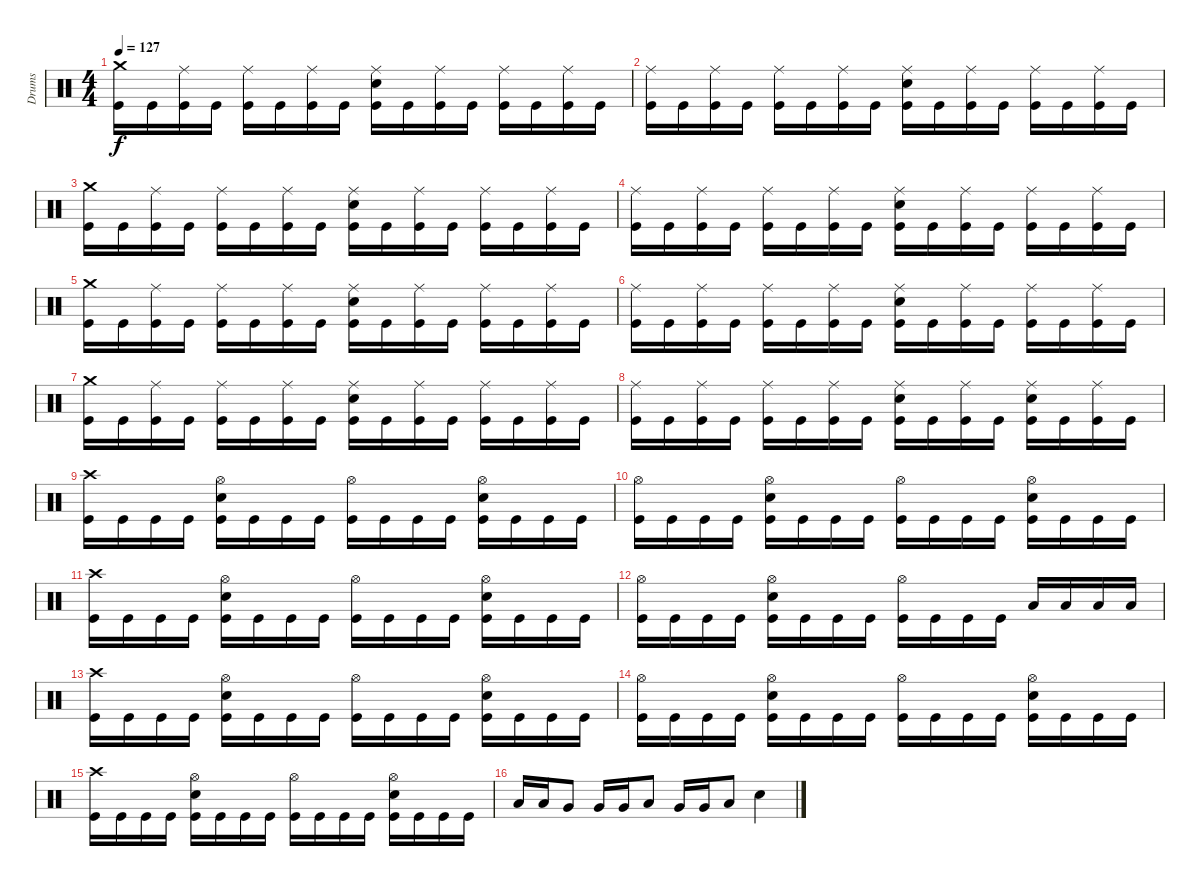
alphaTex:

\track ("Drums" "Drums") {instrument percussion}
\staff {score}
\articulation defaults
\ts (4 4)
\tempo 127
\clef neutral
\ks c
("Crash medium (hit)" "Kick (hit)").16{dy f} "Kick (hit)".16 ("Ride (middle)" "Kick (hit)").16 "Kick (hit)".16 ("Ride (middle)" "Kick (hit)").16 "Kick (hit)".16 ("Ride (middle)" "Kick (hit)").16 "Kick (hit)".16 ("Ride (middle)" "Snare (hit) 2" "Kick (hit)").16 "Kick (hit)".16 ("Ride (middle)" "Kick (hit)").16 "Kick (hit)".16 ("Ride (middle)" "Kick (hit)").16 "Kick (hit)".16 ("Ride (middle)" "Kick (hit)").16 "Kick (hit)".16 |
("Ride (middle)" "Kick (hit)").16 "Kick (hit)".16 ("Ride (middle)" "Kick (hit)").16 "Kick (hit)".16 ("Ride (middle)" "Kick (hit)").16 "Kick (hit)".16 ("Ride (middle)" "Kick (hit)").16 "Kick (hit)".16 ("Ride (middle)" "Snare (hit) 2" "Kick (hit)").16 "Kick (hit)".16 ("Ride (middle)" "Kick (hit)").16 "Kick (hit)".16 ("Ride (middle)" "Kick (hit)").16 "Kick (hit)".16 ("Ride (middle)" "Kick (hit)").16 "Kick (hit)".16 |
("Crash medium (hit)" "Kick (hit)").16 "Kick (hit)".16 ("Ride (middle)" "Kick (hit)").16 "Kick (hit)".16 ("Ride (middle)" "Kick (hit)").16 "Kick (hit)".16 ("Ride (middle)" "Kick (hit)").16 "Kick (hit)".16 ("Ride (middle)" "Snare (hit) 2" "Kick (hit)").16 "Kick (hit)".16 ("Ride (middle)" "Kick (hit)").16 "Kick (hit)".16 ("Ride (middle)" "Kick (hit)").16 "Kick (hit)".16 ("Ride (middle)" "Kick (hit)").16 "Kick (hit)".16 |
("Ride (middle)" "Kick (hit)").16 "Kick (hit)".16 ("Ride (middle)" "Kick (hit)").16 "Kick (hit)".16 ("Ride (middle)" "Kick (hit)").16 "Kick (hit)".16 ("Ride (middle)" "Kick (hit)").16 "Kick (hit)".16 ("Ride (middle)" "Snare (hit) 2" "Kick (hit)").16 "Kick (hit)".16 ("Ride (middle)" "Kick (hit)").16 "Kick (hit)".16 ("Ride (middle)" "Kick (hit)").16 "Kick (hit)".16 ("Ride (middle)" "Kick (hit)").16 "Kick (hit)".16 |
("Crash medium (hit)" "Kick (hit)").16 "Kick (hit)".16 ("Ride (middle)" "Kick (hit)").16 "Kick (hit)".16 ("Ride (middle)" "Kick (hit)").16 "Kick (hit)".16 ("Ride (middle)" "Kick (hit)").16 "Kick (hit)".16 ("Ride (middle)" "Snare (hit) 2" "Kick (hit)").16 "Kick (hit)".16 ("Ride (middle)" "Kick (hit)").16 "Kick (hit)".16 ("Ride (middle)" "Kick (hit)").16 "Kick (hit)".16 ("Ride (middle)" "Kick (hit)").16 "Kick (hit)".16 |
("Ride (middle)" "Kick (hit)").16 "Kick (hit)".16 ("Ride (middle)" "Kick (hit)").16 "Kick (hit)".16 ("Ride (middle)" "Kick (hit)").16 "Kick (hit)".16 ("Ride (middle)" "Kick (hit)").16 "Kick (hit)".16 ("Ride (middle)" "Snare (hit) 2" "Kick (hit)").16 "Kick (hit)".16 ("Ride (middle)" "Kick (hit)").16 "Kick (hit)".16 ("Ride (middle)" "Kick (hit)").16 "Kick (hit)".16 ("Ride (middle)" "Kick (hit)").16 "Kick (hit)".16 |
("Crash medium (hit)" "Kick (hit)").16 "Kick (hit)".16 ("Ride (middle)" "Kick (hit)").16 "Kick (hit)".16 ("Ride (middle)" "Kick (hit)").16 "Kick (hit)".16 ("Ride (middle)" "Kick (hit)").16 "Kick (hit)".16 ("Ride (middle)" "Snare (hit) 2" "Kick (hit)").16 "Kick (hit)".16 ("Ride (middle)" "Kick (hit)").16 "Kick (hit)".16 ("Ride (middle)" "Kick (hit)").16 "Kick (hit)".16 ("Ride (middle)" "Kick (hit)").16 "Kick (hit)".16 |
("Ride (middle)" "Kick (hit)").16 "Kick (hit)".16 ("Ride (middle)" "Kick (hit)").16 "Kick (hit)".16 ("Ride (middle)" "Kick (hit)").16 "Kick (hit)".16 ("Ride (middle)" "Kick (hit)").16 "Kick (hit)".16 ("Ride (middle)" "Snare (hit) 2" "Kick (hit)").16 "Kick (hit)".16 ("Ride (middle)" "Kick (hit)").16 "Kick (hit)".16 ("Ride (middle)" "Snare (hit) 2" "Kick (hit)").16 "Kick (hit)".16 ("Ride (middle)" "Kick (hit)").16 "Kick (hit)".16 |
("Crash high (hit)" "Kick (hit)").16 "Kick (hit)".16 "Kick (hit)".16 "Kick (hit)".16 ("Hi-Hat (open)" "Snare (hit) 2" "Kick (hit)").16 "Kick (hit)".16 "Kick (hit)".16 "Kick (hit)".16 ("Hi-Hat (open)" "Kick (hit)").16 "Kick (hit)".16 "Kick (hit)".16 "Kick (hit)".16 ("Hi-Hat (open)" "Snare (hit) 2" "Kick (hit)").16 "Kick (hit)".16 "Kick (hit)".16 "Kick (hit)".16 |
("Hi-Hat (open)" "Kick (hit)").16 "Kick (hit)".16 "Kick (hit)".16 "Kick (hit)".16 ("Hi-Hat (open)" "Snare (hit) 2" "Kick (hit)").16 "Kick (hit)".16 "Kick (hit)".16 "Kick (hit)".16 ("Hi-Hat (open)" "Kick (hit)").16 "Kick (hit)".16 "Kick (hit)".16 "Kick (hit)".16 ("Hi-Hat (open)" "Snare (hit) 2" "Kick (hit)").16 "Kick (hit)".16 "Kick (hit)".16 "Kick (hit)".16 |
("Crash high (hit)" "Kick (hit)").16 "Kick (hit)".16 "Kick (hit)".16 "Kick (hit)".16 ("Hi-Hat (open)" "Snare (hit) 2" "Kick (hit)").16 "Kick (hit)".16 "Kick (hit)".16 "Kick (hit)".16 ("Hi-Hat (open)" "Kick (hit)").16 "Kick (hit)".16 "Kick (hit)".16 "Kick (hit)".16 ("Hi-Hat (open)" "Snare (hit) 2" "Kick (hit)").16 "Kick (hit)".16 "Kick (hit)".16 "Kick (hit)".16 |
("Hi-Hat (open)" "Kick (hit)").16 "Kick (hit)".16 "Kick (hit)".16 "Kick (hit)".16 ("Hi-Hat (open)" "Snare (hit) 2" "Kick (hit)").16 "Kick (hit)".16 "Kick (hit)".16 "Kick (hit)".16 ("Hi-Hat (open)" "Kick (hit)").16 "Kick (hit)".16 "Kick (hit)".16 "Kick (hit)".16 "Low Floor Tom (hit)".16 "Low Floor Tom (hit)".16 "Low Floor Tom (hit)".16 "Low Floor Tom (hit)".16 |
("Crash high (hit)" "Kick (hit)").16 "Kick (hit)".16 "Kick (hit)".16 "Kick (hit)".16 ("Hi-Hat (open)" "Snare (hit) 2" "Kick (hit)").16 "Kick (hit)".16 "Kick (hit)".16 "Kick (hit)".16 ("Hi-Hat (open)" "Kick (hit)").16 "Kick (hit)".16 "Kick (hit)".16 "Kick (hit)".16 ("Hi-Hat (open)" "Snare (hit) 2" "Kick (hit)").16 "Kick (hit)".16 "Kick (hit)".16 "Kick (hit)".16 |
("Hi-Hat (open)" "Kick (hit)").16 "Kick (hit)".16 "Kick (hit)".16 "Kick (hit)".16 ("Hi-Hat (open)" "Snare (hit) 2" "Kick (hit)").16 "Kick (hit)".16 "Kick (hit)".16 "Kick (hit)".16 ("Hi-Hat (open)" "Kick (hit)").16 "Kick (hit)".16 "Kick (hit)".16 "Kick (hit)".16 ("Hi-Hat (open)" "Snare (hit) 2" "Kick (hit)").16 "Kick (hit)".16 "Kick (hit)".16 "Kick (hit)".16 |
("Crash high (hit)" "Kick (hit)").16 "Kick (hit)".16 "Kick (hit)".16 "Kick (hit)".16 ("Hi-Hat (open)" "Snare (hit) 2" "Kick (hit)").16 "Kick (hit)".16 "Kick (hit)".16 "Kick (hit)".16 ("Hi-Hat (open)" "Kick (hit)").16 "Kick (hit)".16 "Kick (hit)".16 "Kick (hit)".16 ("Hi-Hat (open)" "Snare (hit) 2" "Kick (hit)").16 "Kick (hit)".16 "Kick (hit)".16 "Kick (hit)".16 |
"Low Tom (hit)".16 "Low Tom (hit)".16 "Very Low Tom (hit)".8 "Very Low Tom (hit)".16 "Very Low Tom (hit)".16 "Low Floor Tom (hit)".8 "Very Low Tom (hit)".16 "Very Low Tom (hit)".16 "Low Floor Tom (hit)".8 "Snare (hit) 2".4
